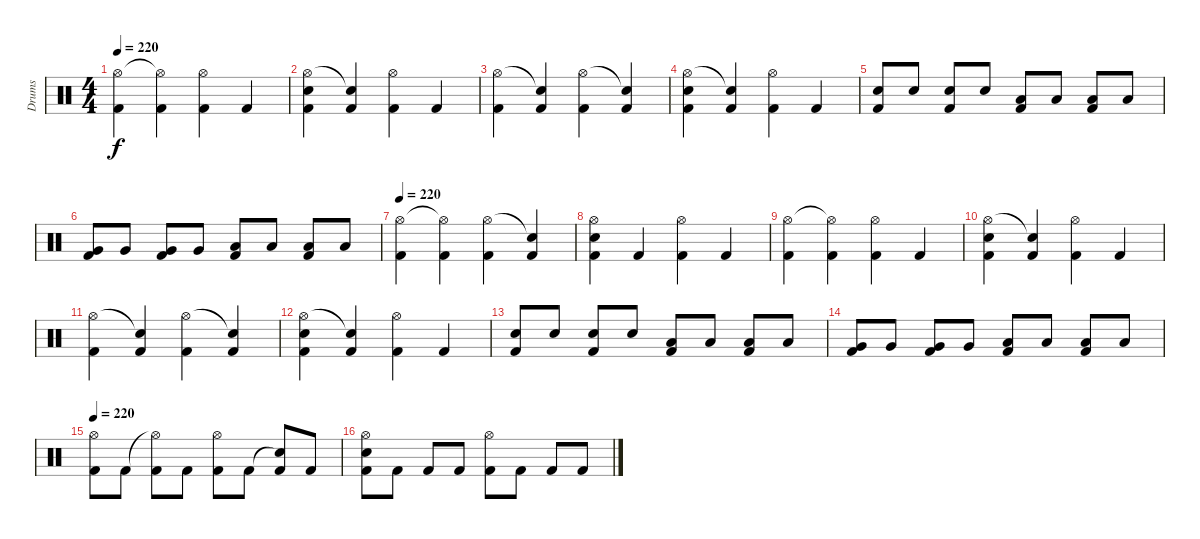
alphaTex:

\track ("Drums" "Drums") {instrument percussion}
\staff {score}
\articulation defaults
\ts (4 4)
\tempo 220
\clef neutral
\ks c
("Hi-Hat (open)" "Kick (hit) 2").4{dy f} ("Hi-Hat (open)"{t} "Kick (hit) 2").4 ("Hi-Hat (open)" "Kick (hit) 2").4 "Kick (hit) 2".4 |
("Hi-Hat (open)" "Snare (hit) 2" "Kick (hit) 2").4 ("Snare (hit)"{t} "Kick (hit) 2").4 ("Hi-Hat (open)" "Kick (hit) 2").4 "Kick (hit) 2".4 |
("Hi-Hat (open)" "Kick (hit) 2").4 ("Snare (hit)"{t} "Kick (hit) 2").4 ("Hi-Hat (open)" "Kick (hit) 2").4 ("Snare (hit)"{t} "Kick (hit) 2").4 |
("Hi-Hat (open)" "Snare (hit) 2" "Kick (hit) 2").4 ("Snare (hit)"{t} "Kick (hit) 2").4 ("Hi-Hat (open)" "Kick (hit) 2").4 "Kick (hit) 2".4 |
("Snare (hit) 2" "Kick (hit) 2").8 "Snare (hit) 2".8 ("Snare (hit) 2" "Kick (hit) 2").8 "Snare (hit) 2".8 ("Low Tom (hit)" "Kick (hit) 2").8 "Low Tom (hit)".8 ("Low Tom (hit)" "Kick (hit) 2").8 "Low Tom (hit)".8 |
("Very Low Tom (hit)" "Kick (hit) 2").8 "Very Low Tom (hit)".8 ("Very Low Tom (hit)" "Kick (hit) 2").8 "Very Low Tom (hit)".8 ("Low Floor Tom (hit)" "Kick (hit) 2").8 "Low Floor Tom (hit)".8 ("Low Floor Tom (hit)" "Kick (hit) 2").8 "Low Floor Tom (hit)".8 |
\tempo 220
("Hi-Hat (open)" "Kick (hit) 2").4 ("Hi-Hat (open)"{t} "Kick (hit) 2").4 ("Hi-Hat (open)" "Kick (hit) 2").4 ("Snare (hit)"{t} "Kick (hit) 2").4 |
("Hi-Hat (open)" "Snare (hit) 2" "Kick (hit) 2").4 "Kick (hit) 2".4 ("Hi-Hat (open)" "Kick (hit) 2").4 "Kick (hit) 2".4 |
("Hi-Hat (open)" "Kick (hit) 2").4 ("Hi-Hat (open)"{t} "Kick (hit) 2").4 ("Hi-Hat (open)" "Kick (hit) 2").4 "Kick (hit) 2".4 |
("Hi-Hat (open)" "Snare (hit) 2" "Kick (hit) 2").4 ("Snare (hit)"{t} "Kick (hit) 2").4 ("Hi-Hat (open)" "Kick (hit) 2").4 "Kick (hit) 2".4 |
("Hi-Hat (open)" "Kick (hit) 2").4 ("Snare (hit)"{t} "Kick (hit) 2").4 ("Hi-Hat (open)" "Kick (hit) 2").4 ("Snare (hit)"{t} "Kick (hit) 2").4 |
("Hi-Hat (open)" "Snare (hit) 2" "Kick (hit) 2").4 ("Snare (hit)"{t} "Kick (hit) 2").4 ("Hi-Hat (open)" "Kick (hit) 2").4 "Kick (hit) 2".4 |
("Snare (hit) 2" "Kick (hit) 2").8 "Snare (hit) 2".8 ("Snare (hit) 2" "Kick (hit) 2").8 "Snare (hit) 2".8 ("Low Tom (hit)" "Kick (hit) 2").8 "Low Tom (hit)".8 ("Low Tom (hit)" "Kick (hit) 2").8 "Low Tom (hit)".8 |
("Very Low Tom (hit)" "Kick (hit) 2").8 "Very Low Tom (hit)".8 ("Very Low Tom (hit)" "Kick (hit) 2").8 "Very Low Tom (hit)".8 ("Low Floor Tom (hit)" "Kick (hit) 2").8 "Low Floor Tom (hit)".8 ("Low Floor Tom (hit)" "Kick (hit) 2").8 "Low Floor Tom (hit)".8 |
\tempo 220
("Hi-Hat (open)" "Kick (hit) 2").8 "Kick (hit) 2".8 ("Hi-Hat (open)"{t} "Kick (hit) 2").8 "Kick (hit) 2".8 ("Hi-Hat (open)" "Kick (hit) 2").8 "Kick (hit) 2".8 ("Snare (hit)"{t} "Kick (hit) 2").8 "Kick (hit) 2".8 |
("Hi-Hat (open)" "Snare (hit) 2" "Kick (hit) 2").8 "Kick (hit) 2".8 "Kick (hit) 2".8 "Kick (hit) 2".8 ("Hi-Hat (open)" "Kick (hit) 2").8 "Kick (hit) 2".8 "Kick (hit) 2".8 "Kick (hit) 2".8
